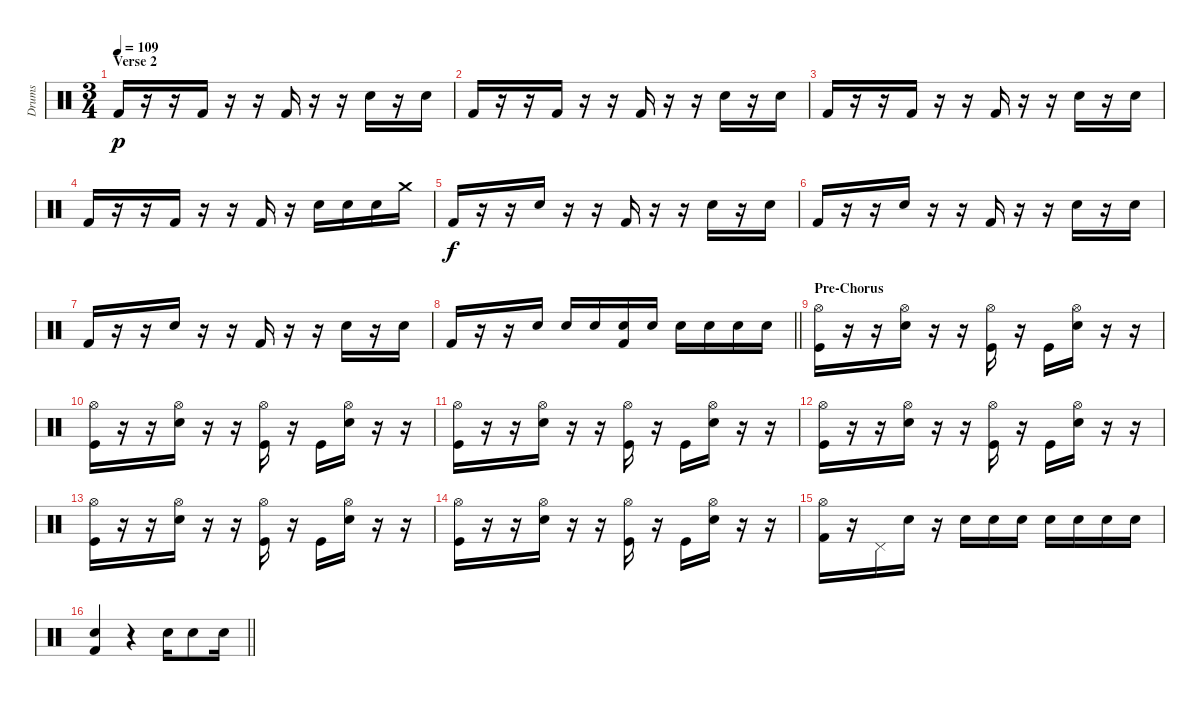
\track ("Drums" "Drums") {instrument percussion}
\staff {score}
\articulation defaults
\ts (3 4)
\section ("" "Verse 2")
\tempo 109
\clef neutral
\ks c "Kick (hit) 2".16{dy p}
r.16 r.16 "Kick (hit) 2".16 r.16 r.16 "Kick (hit) 2".16 r.16 r.16 "Electric Snare (hit)".16 r.16 "Electric Snare (hit)".16 |
"Kick (hit) 2".16 r.16 r.16 "Kick (hit) 2".16 r.16 r.16 "Kick (hit) 2".16 r.16 r.16 "Electric Snare (hit)".16 r.16 "Electric Snare (hit)".16 |
"Kick (hit) 2".16 r.16 r.16 "Kick (hit) 2".16 r.16 r.16 "Kick (hit) 2".16 r.16 r.16 "Electric Snare (hit)".16 r.16 "Electric Snare (hit)".16 |
"Kick (hit) 2".16 r.16 r.16 "Kick (hit) 2".16 r.16 r.16 "Kick (hit) 2".16 r.16 "Electric Snare (hit)".16 "Electric Snare (hit)".16 "Electric Snare (hit)".16 "Crash medium (hit)".16 |
"Kick (hit) 2".16{dy f} r.16 r.16 "Electric Snare (hit)".16 r.16 r.16 "Kick (hit) 2".16 r.16 r.16 "Electric Snare (hit)".16 r.16 "Electric Snare (hit)".16 |
"Kick (hit) 2".16 r.16 r.16 "Electric Snare (hit)".16 r.16 r.16 "Kick (hit) 2".16 r.16 r.16 "Electric Snare (hit)".16 r.16 "Electric Snare (hit)".16 |
"Kick (hit) 2".16 r.16 r.16 "Electric Snare (hit)".16 r.16 r.16 "Kick (hit) 2".16 r.16 r.16 "Electric Snare (hit)".16 r.16 "Electric Snare (hit)".16 |
\barLineRight lightlight "Kick (hit) 2".16
r.16 r.16 "Electric Snare (hit)".16 "Electric Snare (hit)".16 "Electric Snare (hit)".16 ("Electric Snare (hit)" "Kick (hit) 2").16 "Electric Snare (hit)".16 "Electric Snare (hit)".16 "Electric Snare (hit)".16 "Electric Snare (hit)".16 "Electric Snare (hit)".16 |
\section ("" "Pre-Chorus")
("Hi-Hat (open)" "Kick (hit)").16 r.16 r.16 ("Hi-Hat (open)" "Electric Snare (hit)").16 r.16 r.16 ("Hi-Hat (open)" "Kick (hit)").16 r.16 "Kick (hit)".16 ("Hi-Hat (open)" "Electric Snare (hit)").16 r.16 r.16 |
("Hi-Hat (open)" "Kick (hit)").16 r.16 r.16 ("Hi-Hat (open)" "Electric Snare (hit)").16 r.16 r.16 ("Hi-Hat (open)" "Kick (hit)").16 r.16 "Kick (hit)".16 ("Hi-Hat (open)" "Electric Snare (hit)").16 r.16 r.16 |
("Hi-Hat (open)" "Kick (hit)").16 r.16 r.16 ("Hi-Hat (open)" "Electric Snare (hit)").16 r.16 r.16 ("Hi-Hat (open)" "Kick (hit)").16 r.16 "Kick (hit)".16 ("Hi-Hat (open)" "Electric Snare (hit)").16 r.16 r.16 |
("Hi-Hat (open)" "Kick (hit)").16 r.16 r.16 ("Hi-Hat (open)" "Electric Snare (hit)").16 r.16 r.16 ("Hi-Hat (open)" "Kick (hit)").16 r.16 "Kick (hit)".16 ("Hi-Hat (open)" "Electric Snare (hit)").16 r.16 r.16 |
("Hi-Hat (open)" "Kick (hit)").16 r.16 r.16 ("Hi-Hat (open)" "Electric Snare (hit)").16 r.16 r.16 ("Hi-Hat (open)" "Kick (hit)").16 r.16 "Kick (hit)".16 ("Hi-Hat (open)" "Electric Snare (hit)").16 r.16 r.16 |
("Hi-Hat (open)" "Kick (hit)").16 r.16 r.16 ("Hi-Hat (open)" "Electric Snare (hit)").16 r.16 r.16 ("Hi-Hat (open)" "Kick (hit)").16 r.16 "Kick (hit)".16 ("Hi-Hat (open)" "Electric Snare (hit)").16 r.16 r.16 |
("Hi-Hat (open)" "Kick (hit) 2").16 r.16 "Pedal Hi-Hat (hit)".16 "Electric Snare (hit)".16 r.16 "Electric Snare (hit)".16 "Electric Snare (hit)".16 "Electric Snare (hit)".16 "Electric Snare (hit)".16 "Electric Snare (hit)".16 "Electric Snare (hit)".16 "Electric Snare (hit)".16 |
\barLineRight lightlight
("Electric Snare (hit)" "Kick (hit) 2").4 r.4 "Electric Snare (hit)".16 "Electric Snare (hit)".8 "Electric Snare (hit)".16
